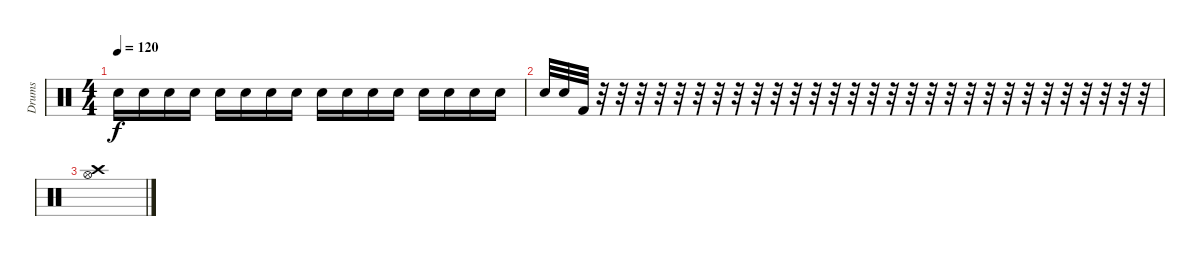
\track ("Drums" "Drums") {instrument percussion}
\staff {score}
\articulation defaults
\ts (4 4)
\tempo 120
\clef neutral
\ks c "Snare (hit) 2".16{dy f} "Snare (hit) 2".16 "Snare (hit) 2".16 "Snare (hit) 2".16 "Snare (hit) 2".16 "Snare (hit) 2".16 "Snare (hit) 2".16 "Snare (hit) 2".16 "Snare (hit) 2".16 "Snare (hit) 2".16 "Snare (hit) 2".16 "Snare (hit) 2".16 "Snare (hit) 2".16 "Snare (hit) 2".16 "Snare (hit) 2".16 "Snare (hit) 2".16
|
"Snare (hit) 2".32 "Snare (hit) 2".32 "Kick (hit) 2".32 r.32 r.32 r.32 r.32 r.32 r.32 r.32 r.32 r.32 r.32 r.32 r.32 r.32 r.32 r.32 r.32 r.32 r.32 r.32 r.32 r.32 r.32 r.32 r.32 r.32 r.32 r.32 r.32 r.32 |
("Crash high (hit)" "Hi-Hat (open)").1
